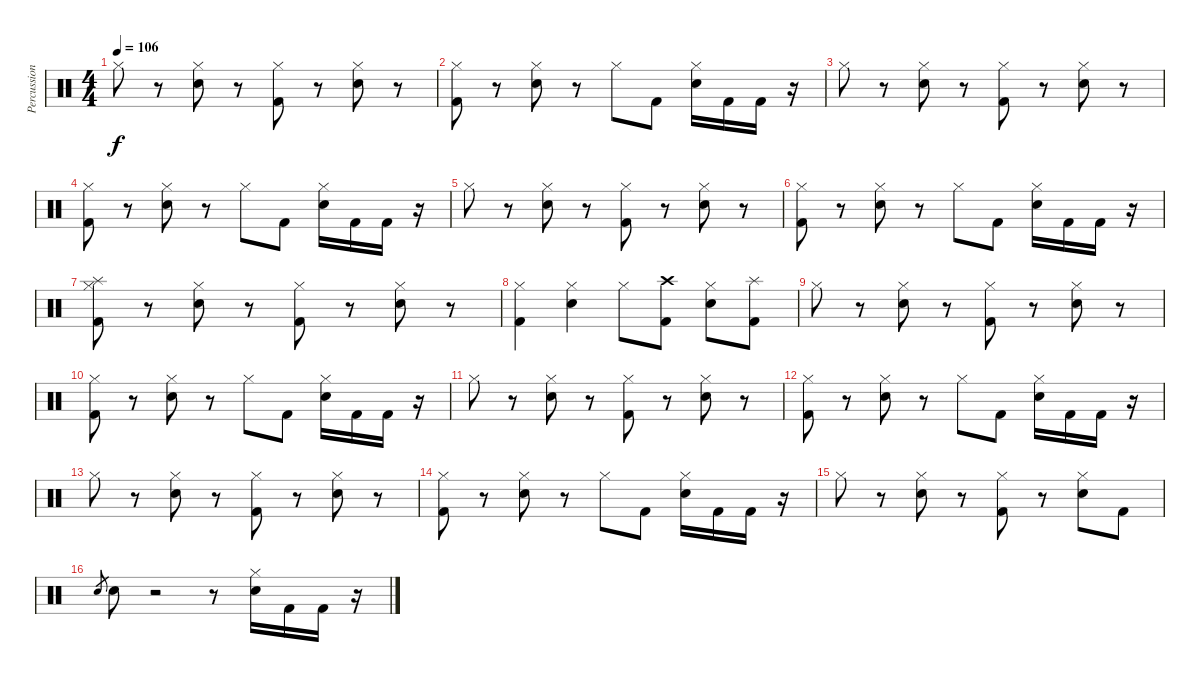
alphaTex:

\track ("Percussion" "Percussion") {instrument percussion}
\staff {score}
\articulation defaults
\ts (4 4)
\tempo 106
\clef neutral
\ks c "Hi-Hat (closed)".8{dy f}
r.8 ("Hi-Hat (closed)" "Snare (hit) 2").8 r.8 ("Hi-Hat (closed)" "Kick (hit) 2").8 r.8 ("Hi-Hat (closed)" "Snare (hit) 2").8 r.8 |
("Hi-Hat (closed)" "Kick (hit) 2").8 r.8 ("Hi-Hat (closed)" "Snare (hit) 2").8 r.8 "Hi-Hat (closed)".8 "Kick (hit) 2".8 ("Hi-Hat (closed)" "Snare (hit) 2").16 "Kick (hit) 2".16 "Kick (hit) 2".16 r.16 |
"Hi-Hat (closed)".8 r.8 ("Hi-Hat (closed)" "Snare (hit) 2").8 r.8 ("Hi-Hat (closed)" "Kick (hit) 2").8 r.8 ("Hi-Hat (closed)" "Snare (hit) 2").8 r.8 |
("Hi-Hat (closed)" "Kick (hit) 2").8 r.8 ("Hi-Hat (closed)" "Snare (hit) 2").8 r.8 "Hi-Hat (closed)".8 "Kick (hit) 2".8 ("Hi-Hat (closed)" "Snare (hit) 2").16 "Kick (hit) 2".16 "Kick (hit) 2".16 r.16 |
"Hi-Hat (closed)".8 r.8 ("Hi-Hat (closed)" "Snare (hit) 2").8 r.8 ("Hi-Hat (closed)" "Kick (hit) 2").8 r.8 ("Hi-Hat (closed)" "Snare (hit) 2").8 r.8 |
("Hi-Hat (closed)" "Kick (hit) 2").8 r.8 ("Hi-Hat (closed)" "Snare (hit) 2").8 r.8 "Hi-Hat (closed)".8 "Kick (hit) 2".8 ("Hi-Hat (closed)" "Snare (hit) 2").16 "Kick (hit) 2".16 "Kick (hit) 2".16 r.16 |
("Hi-Hat (closed)" "Splash (hit)" "Kick (hit) 2").8 r.8 ("Hi-Hat (closed)" "Snare (hit) 2").8 r.8 ("Hi-Hat (closed)" "Kick (hit) 2").8 r.8 ("Hi-Hat (closed)" "Snare (hit) 2").8 r.8 |
("Hi-Hat (closed)" "Kick (hit) 2").4 ("Hi-Hat (closed)" "Snare (hit) 2").4 "Hi-Hat (closed)".8 ("Crash high (hit)" "Kick (hit) 2").8 ("Hi-Hat (closed)" "Snare (hit) 2").8 ("Splash (hit)" "Kick (hit) 2").8 |
"Hi-Hat (closed)".8 r.8 ("Hi-Hat (closed)" "Snare (hit) 2").8 r.8 ("Hi-Hat (closed)" "Kick (hit) 2").8 r.8 ("Hi-Hat (closed)" "Snare (hit) 2").8 r.8 |
("Hi-Hat (closed)" "Kick (hit) 2").8 r.8 ("Hi-Hat (closed)" "Snare (hit) 2").8 r.8 "Hi-Hat (closed)".8 "Kick (hit) 2".8 ("Hi-Hat (closed)" "Snare (hit) 2").16 "Kick (hit) 2".16 "Kick (hit) 2".16 r.16 |
"Hi-Hat (closed)".8 r.8 ("Hi-Hat (closed)" "Snare (hit) 2").8 r.8 ("Hi-Hat (closed)" "Kick (hit) 2").8 r.8 ("Hi-Hat (closed)" "Snare (hit) 2").8 r.8 |
("Hi-Hat (closed)" "Kick (hit) 2").8 r.8 ("Hi-Hat (closed)" "Snare (hit) 2").8 r.8 "Hi-Hat (closed)".8 "Kick (hit) 2".8 ("Hi-Hat (closed)" "Snare (hit) 2").16 "Kick (hit) 2".16 "Kick (hit) 2".16 r.16 |
"Hi-Hat (closed)".8 r.8 ("Hi-Hat (closed)" "Snare (hit) 2").8 r.8 ("Hi-Hat (closed)" "Kick (hit) 2").8 r.8 ("Hi-Hat (closed)" "Snare (hit) 2").8 r.8 |
("Hi-Hat (closed)" "Kick (hit) 2").8 r.8 ("Hi-Hat (closed)" "Snare (hit) 2").8 r.8 "Hi-Hat (closed)".8 "Kick (hit) 2".8 ("Hi-Hat (closed)" "Snare (hit) 2").16 "Kick (hit) 2".16 "Kick (hit) 2".16 r.16 |
"Hi-Hat (closed)".8 r.8 ("Hi-Hat (closed)" "Snare (hit) 2").8 r.8 ("Hi-Hat (closed)" "Kick (hit) 2").8 r.8 ("Hi-Hat (closed)" "Snare (hit) 2").8 "Kick (hit) 2".8 |
"Snare (hit) 2".8{gr} "Snare (hit) 2".8 r.2 r.8 ("Hi-Hat (closed)" "Snare (hit) 2").16 "Kick (hit) 2".16 "Kick (hit) 2".16 r.16
